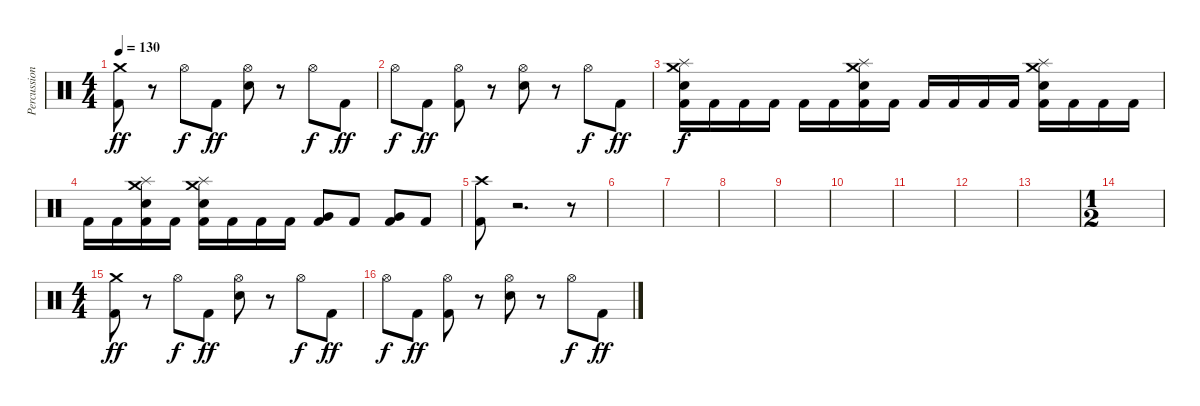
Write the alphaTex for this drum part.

\track ("Percussion" "Percussion") {instrument percussion}
\staff {score}
\articulation defaults
\ts (4 4)
\tempo 130
\clef neutral
\ks c
("Crash medium (hit)" "Kick (hit) 2").8{dy ff} r.8 "Hi-Hat (open)".8{dy f} "Kick (hit) 2".8{dy ff} ("Hi-Hat (open)" "Electric Snare (hit)").8 r.8 "Hi-Hat (open)".8{dy f} "Kick (hit) 2".8{dy ff} |
"Hi-Hat (open)".8{dy f} "Kick (hit) 2".8{dy ff} ("Hi-Hat (open)" "Kick (hit) 2").8 r.8 ("Hi-Hat (open)" "Electric Snare (hit)").8 r.8 "Hi-Hat (open)".8{dy f} "Kick (hit) 2".8{dy ff} |
("Crash medium (hit)" "Splash (hit)" "Electric Snare (hit)" "Kick (hit) 2").16{dy f} "Kick (hit) 2".16 "Kick (hit) 2".16 "Kick (hit) 2".16 "Kick (hit) 2".16 "Kick (hit) 2".16 ("Crash medium (hit)" "Splash (hit)" "Electric Snare (hit)" "Kick (hit) 2").16 "Kick (hit) 2".16 "Kick (hit) 2".16 "Kick (hit) 2".16 "Kick (hit) 2".16 "Kick (hit) 2".16 ("Crash medium (hit)" "Splash (hit)" "Electric Snare (hit)" "Kick (hit) 2").16 "Kick (hit) 2".16 "Kick (hit) 2".16 "Kick (hit) 2".16 |
"Kick (hit) 2".16 "Kick (hit) 2".16 ("Crash medium (hit)" "Splash (hit)" "Electric Snare (hit)" "Kick (hit) 2").16 "Kick (hit) 2".16 ("Crash medium (hit)" "Splash (hit)" "Electric Snare (hit)" "Kick (hit) 2").16 "Kick (hit) 2".16 "Kick (hit) 2".16 "Kick (hit) 2".16 ("Very Low Tom (hit)" "Kick (hit) 2").8 "Kick (hit) 2".8 ("Very Low Tom (hit)" "Kick (hit) 2").8 "Kick (hit) 2".8 |
("Crash high (hit)" "Kick (hit) 2").8 r.2{d} r.8 |
|
|
|
|
|
|
|
|
\ts (1 2)
|
\ts (4 4)
("Crash medium (hit)" "Kick (hit) 2").8{dy ff} r.8 "Hi-Hat (open)".8{dy f} "Kick (hit) 2".8{dy ff} ("Hi-Hat (open)" "Electric Snare (hit)").8 r.8 "Hi-Hat (open)".8{dy f} "Kick (hit) 2".8{dy ff} |
"Hi-Hat (open)".8{dy f} "Kick (hit) 2".8{dy ff} ("Hi-Hat (open)" "Kick (hit) 2").8 r.8 ("Hi-Hat (open)" "Electric Snare (hit)").8 r.8 "Hi-Hat (open)".8{dy f} "Kick (hit) 2".8{dy ff}
